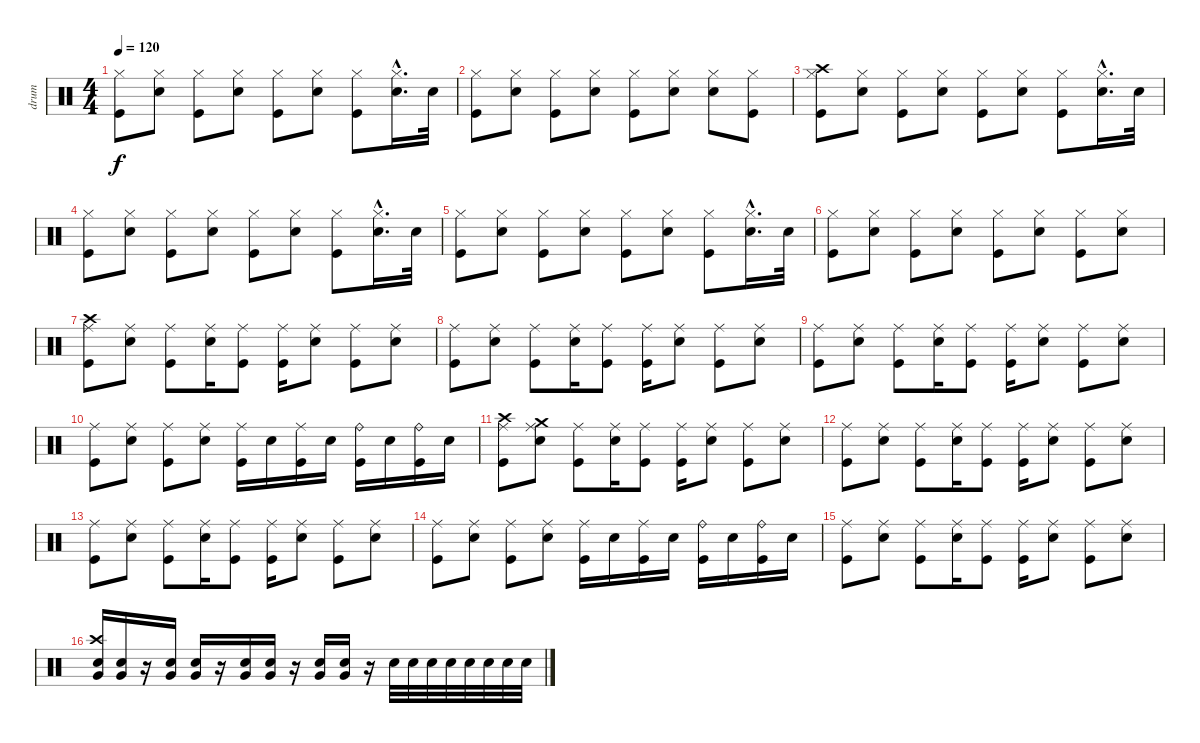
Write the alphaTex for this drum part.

\track ("drum " "drum ") {instrument percussion}
\staff {score}
\articulation defaults
\ts (4 4)
\tempo 120
\clef neutral
\ks c
("Hi-Hat (closed)" "Kick (hit)").8{dy f} ("Hi-Hat (closed)" "Snare (hit) 2").8 ("Hi-Hat (closed)" "Kick (hit)").8 ("Hi-Hat (closed)" "Snare (hit) 2").8 ("Hi-Hat (closed)" "Kick (hit)").8 ("Hi-Hat (closed)" "Snare (hit) 2").8 ("Hi-Hat (closed)" "Kick (hit)").8 ("Hi-Hat (closed)"{hac} "Snare (hit) 2"{hac}).16{d} "Snare (hit) 2".32 |
("Hi-Hat (closed)" "Kick (hit)").8 ("Hi-Hat (closed)" "Snare (hit) 2").8 ("Hi-Hat (closed)" "Kick (hit)").8 ("Hi-Hat (closed)" "Snare (hit) 2").8 ("Hi-Hat (closed)" "Kick (hit)").8 ("Hi-Hat (closed)" "Snare (hit) 2").8 ("Hi-Hat (closed)" "Snare (hit) 2").8 ("Hi-Hat (closed)" "Kick (hit)").8 |
("Crash high (hit)" "Hi-Hat (closed)" "Kick (hit)").8 ("Hi-Hat (closed)" "Snare (hit) 2").8 ("Hi-Hat (closed)" "Kick (hit)").8 ("Hi-Hat (closed)" "Snare (hit) 2").8 ("Hi-Hat (closed)" "Kick (hit)").8 ("Hi-Hat (closed)" "Snare (hit) 2").8 ("Hi-Hat (closed)" "Kick (hit)").8 ("Hi-Hat (closed)"{hac} "Snare (hit) 2"{hac}).16{d} "Snare (hit) 2".32 |
("Hi-Hat (closed)" "Kick (hit)").8 ("Hi-Hat (closed)" "Snare (hit) 2").8 ("Hi-Hat (closed)" "Kick (hit)").8 ("Hi-Hat (closed)" "Snare (hit) 2").8 ("Hi-Hat (closed)" "Kick (hit)").8 ("Hi-Hat (closed)" "Snare (hit) 2").8 ("Hi-Hat (closed)" "Kick (hit)").8 ("Hi-Hat (closed)"{hac} "Snare (hit) 2"{hac}).16{d} "Snare (hit) 2".32 |
("Hi-Hat (closed)" "Kick (hit)").8 ("Hi-Hat (closed)" "Snare (hit) 2").8 ("Hi-Hat (closed)" "Kick (hit)").8 ("Hi-Hat (closed)" "Snare (hit) 2").8 ("Hi-Hat (closed)" "Kick (hit)").8 ("Hi-Hat (closed)" "Snare (hit) 2").8 ("Hi-Hat (closed)" "Kick (hit)").8 ("Hi-Hat (closed)"{hac} "Snare (hit) 2"{hac}).16{d} "Snare (hit) 2".32 |
("Hi-Hat (closed)" "Kick (hit)").8 ("Hi-Hat (closed)" "Snare (hit) 2").8 ("Hi-Hat (closed)" "Kick (hit)").8 ("Hi-Hat (closed)" "Snare (hit) 2").8 ("Hi-Hat (closed)" "Kick (hit)").8 ("Hi-Hat (closed)" "Snare (hit) 2").8 ("Hi-Hat (closed)" "Kick (hit)").8 ("Hi-Hat (closed)" "Snare (hit) 2").8 |
("Crash high (hit)" "Ride (middle)" "Kick (hit)").8 ("Ride (middle)" "Snare (hit) 2").8 ("Ride (middle)" "Kick (hit)").8 ("Ride (middle)" "Snare (hit) 2").16 ("Ride (middle)" "Kick (hit)").8 ("Ride (middle)" "Kick (hit)").16 ("Ride (middle)" "Snare (hit) 2").8 ("Ride (middle)" "Kick (hit)").8 ("Ride (middle)" "Snare (hit) 2").8 |
("Ride (middle)" "Kick (hit)").8 ("Ride (middle)" "Snare (hit) 2").8 ("Ride (middle)" "Kick (hit)").8 ("Ride (middle)" "Snare (hit) 2").16 ("Ride (middle)" "Kick (hit)").8 ("Ride (middle)" "Kick (hit)").16 ("Ride (middle)" "Snare (hit) 2").8 ("Ride (middle)" "Kick (hit)").8 ("Ride (middle)" "Snare (hit) 2").8 |
("Ride (middle)" "Kick (hit)").8 ("Ride (middle)" "Snare (hit) 2").8 ("Ride (middle)" "Kick (hit)").8 ("Ride (middle)" "Snare (hit) 2").16 ("Ride (middle)" "Kick (hit)").8 ("Ride (middle)" "Kick (hit)").16 ("Ride (middle)" "Snare (hit) 2").8 ("Ride (middle)" "Kick (hit)").8 ("Ride (middle)" "Snare (hit) 2").8 |
("Ride (middle)" "Kick (hit)").8 ("Ride (middle)" "Snare (hit) 2").8 ("Ride (middle)" "Kick (hit)").8 ("Ride (middle)" "Snare (hit) 2").8 ("Ride (middle)" "Kick (hit)").16 "Snare (hit) 2".16 ("Ride (middle)" "Kick (hit)").16 "Snare (hit) 2".16 ("Ride (bell)" "Kick (hit)").16 "Snare (hit) 2".16 ("Ride (bell)" "Kick (hit)").16 "Snare (hit) 2".16 |
("Crash high (hit)" "Ride (middle)" "Kick (hit)").8 ("Crash medium (hit)" "Ride (middle)" "Snare (hit) 2").8 ("Ride (middle)" "Kick (hit)").8 ("Ride (middle)" "Snare (hit) 2").16 ("Ride (middle)" "Kick (hit)").8 ("Ride (middle)" "Kick (hit)").16 ("Ride (middle)" "Snare (hit) 2").8 ("Ride (middle)" "Kick (hit)").8 ("Ride (middle)" "Snare (hit) 2").8 |
("Ride (middle)" "Kick (hit)").8 ("Ride (middle)" "Snare (hit) 2").8 ("Ride (middle)" "Kick (hit)").8 ("Ride (middle)" "Snare (hit) 2").16 ("Ride (middle)" "Kick (hit)").8 ("Ride (middle)" "Kick (hit)").16 ("Ride (middle)" "Snare (hit) 2").8 ("Ride (middle)" "Kick (hit)").8 ("Ride (middle)" "Snare (hit) 2").8 |
("Ride (middle)" "Kick (hit)").8 ("Ride (middle)" "Snare (hit) 2").8 ("Ride (middle)" "Kick (hit)").8 ("Ride (middle)" "Snare (hit) 2").16 ("Ride (middle)" "Kick (hit)").8 ("Ride (middle)" "Kick (hit)").16 ("Ride (middle)" "Snare (hit) 2").8 ("Ride (middle)" "Kick (hit)").8 ("Ride (middle)" "Snare (hit) 2").8 |
("Ride (middle)" "Kick (hit)").8 ("Ride (middle)" "Snare (hit) 2").8 ("Ride (middle)" "Kick (hit)").8 ("Ride (middle)" "Snare (hit) 2").8 ("Ride (middle)" "Kick (hit)").16 "Snare (hit) 2".16 ("Ride (middle)" "Kick (hit)").16 "Snare (hit) 2".16 ("Ride (bell)" "Kick (hit)").16 "Snare (hit) 2".16 ("Ride (bell)" "Kick (hit)").16 "Snare (hit) 2".16 |
("Ride (middle)" "Kick (hit)").8 ("Ride (middle)" "Snare (hit) 2").8 ("Ride (middle)" "Kick (hit)").8 ("Ride (middle)" "Snare (hit) 2").16 ("Ride (middle)" "Kick (hit)").8 ("Ride (middle)" "Kick (hit)").16 ("Ride (middle)" "Snare (hit) 2").8 ("Ride (middle)" "Kick (hit)").8 ("Ride (middle)" "Snare (hit) 2").8 |
("Crash high (hit)" "Snare (hit) 2" "Very Low Tom (hit)").16 ("Snare (hit) 2" "Very Low Tom (hit)").16 r.16 ("Snare (hit) 2" "Very Low Tom (hit)").16 ("Snare (hit) 2" "Very Low Tom (hit)").16 r.16 ("Snare (hit) 2" "Very Low Tom (hit)").16 ("Snare (hit) 2" "Very Low Tom (hit)").16 r.16 ("Snare (hit) 2" "Very Low Tom (hit)").16 ("Snare (hit) 2" "Very Low Tom (hit)").16 r.16 "Snare (hit) 2".32 "Snare (hit) 2".32 "Snare (hit) 2".32 "Snare (hit) 2".32 "Snare (hit) 2".32 "Snare (hit) 2".32 "Snare (hit) 2".32 "Snare (hit) 2".32
